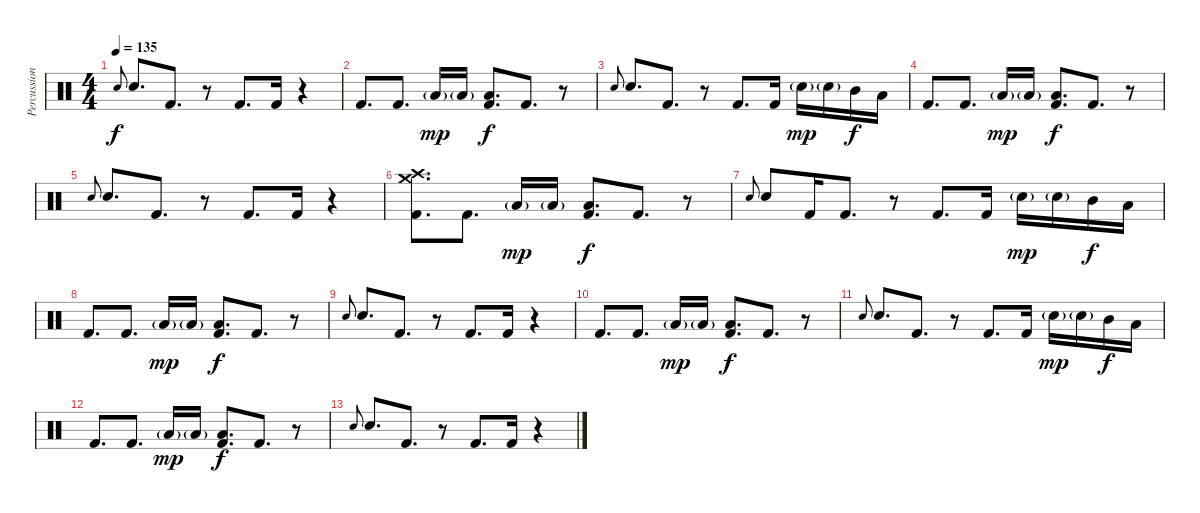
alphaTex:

\track ("Percussion" "Percussion") {instrument percussion}
\staff {score}
\articulation defaults
\ts (4 4)
\tempo 135
\clef neutral
\ks c "Electric Snare (hit)".8{gr onbeat dy f} "Electric Snare (hit)".8{d} "Kick (hit) 2".8{d}
r.8 "Kick (hit) 2".8{d} "Kick (hit) 2".16 r.4 |
"Kick (hit) 2".8{d} "Kick (hit) 2".8{d} "Low Floor Tom (hit)"{g}.16{dy mp} "Low Floor Tom (hit)"{g}.16 ("Low Floor Tom (hit)" "Kick (hit) 2").8{d dy f} "Kick (hit) 2".8{d} r.8 |
"Electric Snare (hit)".8{gr onbeat} "Electric Snare (hit)".8{d} "Kick (hit) 2".8{d} r.8 "Kick (hit) 2".8{d} "Kick (hit) 2".16 "Electric Snare (hit)"{g}.16{dy mp} "Electric Snare (hit)"{g}.16 "Mid Tom (hit)".16{dy f} "Low Floor Tom (hit)".16 |
"Kick (hit) 2".8{d} "Kick (hit) 2".8{d} "Low Floor Tom (hit)"{g}.16{dy mp} "Low Floor Tom (hit)"{g}.16 ("Low Floor Tom (hit)" "Kick (hit) 2").8{d dy f} "Kick (hit) 2".8{d} r.8 |
"Electric Snare (hit)".8{gr onbeat} "Electric Snare (hit)".8{d} "Kick (hit) 2".8{d} r.8 "Kick (hit) 2".8{d} "Kick (hit) 2".16 r.4 |
("Crash high (hit)" "Crash medium (hit)" "Kick (hit) 2").8{d} "Kick (hit) 2".8{d} "Low Floor Tom (hit)"{g}.16{dy mp} "Low Floor Tom (hit)"{g}.16 ("Low Floor Tom (hit)" "Kick (hit) 2").8{d dy f} "Kick (hit) 2".8{d} r.8 |
"Electric Snare (hit)".8{gr onbeat} "Electric Snare (hit)".8 "Kick (hit) 2".16 "Kick (hit) 2".8{d} r.8 "Kick (hit) 2".8{d} "Kick (hit) 2".16 "Electric Snare (hit)"{g}.16{dy mp} "Electric Snare (hit)"{g}.16 "Mid Tom (hit)".16{dy f} "Low Floor Tom (hit)".16 |
"Kick (hit) 2".8{d} "Kick (hit) 2".8{d} "Low Floor Tom (hit)"{g}.16{dy mp} "Low Floor Tom (hit)"{g}.16 ("Low Floor Tom (hit)" "Kick (hit) 2").8{d dy f} "Kick (hit) 2".8{d} r.8 |
"Electric Snare (hit)".8{gr onbeat} "Electric Snare (hit)".8{d} "Kick (hit) 2".8{d} r.8 "Kick (hit) 2".8{d} "Kick (hit) 2".16 r.4 |
"Kick (hit) 2".8{d} "Kick (hit) 2".8{d} "Low Floor Tom (hit)"{g}.16{dy mp} "Low Floor Tom (hit)"{g}.16 ("Low Floor Tom (hit)" "Kick (hit) 2").8{d dy f} "Kick (hit) 2".8{d} r.8 |
"Electric Snare (hit)".8{gr onbeat} "Electric Snare (hit)".8{d} "Kick (hit) 2".8{d} r.8 "Kick (hit) 2".8{d} "Kick (hit) 2".16 "Electric Snare (hit)"{g}.16{dy mp} "Electric Snare (hit)"{g}.16 "Mid Tom (hit)".16{dy f} "Low Floor Tom (hit)".16 |
"Kick (hit) 2".8{d} "Kick (hit) 2".8{d} "Low Floor Tom (hit)"{g}.16{dy mp} "Low Floor Tom (hit)"{g}.16 ("Low Floor Tom (hit)" "Kick (hit) 2").8{d dy f} "Kick (hit) 2".8{d} r.8 |
"Electric Snare (hit)".8{gr onbeat} "Electric Snare (hit)".8{d} "Kick (hit) 2".8{d} r.8 "Kick (hit) 2".8{d} "Kick (hit) 2".16 r.4
